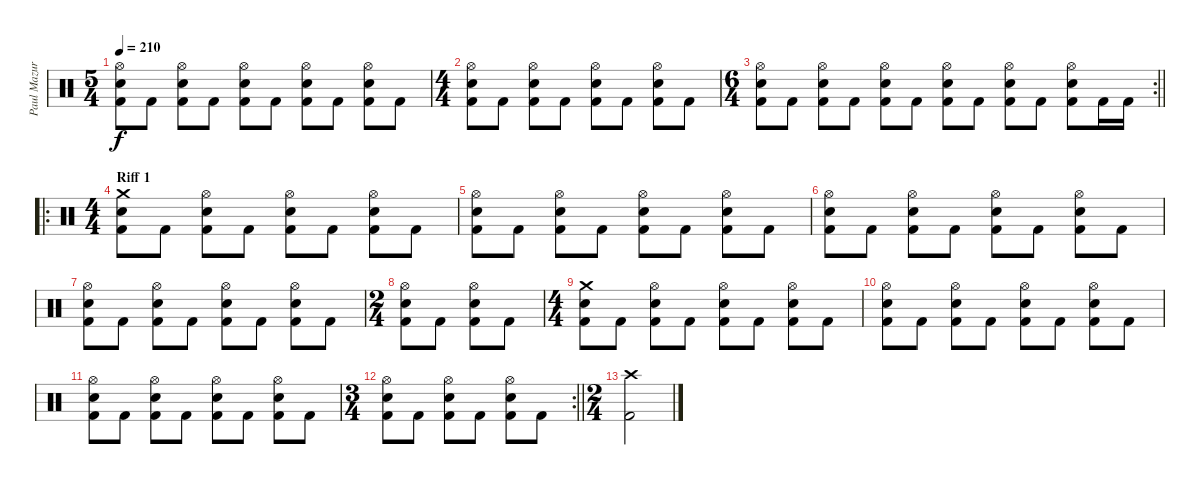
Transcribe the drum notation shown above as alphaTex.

\track ("Paul Mazurkiewicz" "Paul Mazur") {instrument percussion}
\staff {score}
\articulation defaults
\ts (5 4)
\tempo 210
\clef neutral
\ks c
("Hi-Hat (open)" "Electric Snare (hit)" "Kick (hit) 2").8{dy f} "Kick (hit) 2".8 ("Hi-Hat (open)" "Electric Snare (hit)" "Kick (hit) 2").8 "Kick (hit) 2".8 ("Hi-Hat (open)" "Electric Snare (hit)" "Kick (hit) 2").8 "Kick (hit) 2".8 ("Hi-Hat (open)" "Electric Snare (hit)" "Kick (hit) 2").8 "Kick (hit) 2".8 ("Hi-Hat (open)" "Electric Snare (hit)" "Kick (hit) 2").8 "Kick (hit) 2".8 |
\ts (4 4)
("Hi-Hat (open)" "Electric Snare (hit)" "Kick (hit) 2").8 "Kick (hit) 2".8 ("Hi-Hat (open)" "Electric Snare (hit)" "Kick (hit) 2").8 "Kick (hit) 2".8 ("Hi-Hat (open)" "Electric Snare (hit)" "Kick (hit) 2").8 "Kick (hit) 2".8 ("Hi-Hat (open)" "Electric Snare (hit)" "Kick (hit) 2").8 "Kick (hit) 2".8 |
\rc 2
\ts (6 4)
\barLineRight lightlight
("Hi-Hat (open)" "Electric Snare (hit)" "Kick (hit) 2").8 "Kick (hit) 2".8 ("Hi-Hat (open)" "Electric Snare (hit)" "Kick (hit) 2").8 "Kick (hit) 2".8 ("Hi-Hat (open)" "Electric Snare (hit)" "Kick (hit) 2").8 "Kick (hit) 2".8 ("Hi-Hat (open)" "Electric Snare (hit)" "Kick (hit) 2").8 "Kick (hit) 2".8 ("Hi-Hat (open)" "Electric Snare (hit)" "Kick (hit) 2").8 "Kick (hit) 2".8 ("Hi-Hat (open)" "Electric Snare (hit)" "Kick (hit) 2").8 "Kick (hit) 2".16 "Kick (hit) 2".16 |
\ro
\ts (4 4)
\section ("" "Riff 1")
("Crash medium (hit)" "Electric Snare (hit)" "Kick (hit) 2").8 "Kick (hit) 2".8 ("Hi-Hat (open)" "Electric Snare (hit)" "Kick (hit) 2").8 "Kick (hit) 2".8 ("Hi-Hat (open)" "Electric Snare (hit)" "Kick (hit) 2").8 "Kick (hit) 2".8 ("Hi-Hat (open)" "Electric Snare (hit)" "Kick (hit) 2").8 "Kick (hit) 2".8 |
("Hi-Hat (open)" "Electric Snare (hit)" "Kick (hit) 2").8 "Kick (hit) 2".8 ("Hi-Hat (open)" "Electric Snare (hit)" "Kick (hit) 2").8 "Kick (hit) 2".8 ("Hi-Hat (open)" "Electric Snare (hit)" "Kick (hit) 2").8 "Kick (hit) 2".8 ("Hi-Hat (open)" "Electric Snare (hit)" "Kick (hit) 2").8 "Kick (hit) 2".8 |
("Hi-Hat (open)" "Electric Snare (hit)" "Kick (hit) 2").8 "Kick (hit) 2".8 ("Hi-Hat (open)" "Electric Snare (hit)" "Kick (hit) 2").8 "Kick (hit) 2".8 ("Hi-Hat (open)" "Electric Snare (hit)" "Kick (hit) 2").8 "Kick (hit) 2".8 ("Hi-Hat (open)" "Electric Snare (hit)" "Kick (hit) 2").8 "Kick (hit) 2".8 |
("Hi-Hat (open)" "Electric Snare (hit)" "Kick (hit) 2").8 "Kick (hit) 2".8 ("Hi-Hat (open)" "Electric Snare (hit)" "Kick (hit) 2").8 "Kick (hit) 2".8 ("Hi-Hat (open)" "Electric Snare (hit)" "Kick (hit) 2").8 "Kick (hit) 2".8 ("Hi-Hat (open)" "Electric Snare (hit)" "Kick (hit) 2").8 "Kick (hit) 2".8 |
\ts (2 4)
("Hi-Hat (open)" "Electric Snare (hit)" "Kick (hit) 2").8 "Kick (hit) 2".8 ("Hi-Hat (open)" "Electric Snare (hit)" "Kick (hit) 2").8 "Kick (hit) 2".8 |
\ts (4 4)
("Crash medium (hit)" "Electric Snare (hit)" "Kick (hit) 2").8 "Kick (hit) 2".8 ("Hi-Hat (open)" "Electric Snare (hit)" "Kick (hit) 2").8 "Kick (hit) 2".8 ("Hi-Hat (open)" "Electric Snare (hit)" "Kick (hit) 2").8 "Kick (hit) 2".8 ("Hi-Hat (open)" "Electric Snare (hit)" "Kick (hit) 2").8 "Kick (hit) 2".8 |
("Hi-Hat (open)" "Electric Snare (hit)" "Kick (hit) 2").8 "Kick (hit) 2".8 ("Hi-Hat (open)" "Electric Snare (hit)" "Kick (hit) 2").8 "Kick (hit) 2".8 ("Hi-Hat (open)" "Electric Snare (hit)" "Kick (hit) 2").8 "Kick (hit) 2".8 ("Hi-Hat (open)" "Electric Snare (hit)" "Kick (hit) 2").8 "Kick (hit) 2".8 |
("Hi-Hat (open)" "Electric Snare (hit)" "Kick (hit) 2").8 "Kick (hit) 2".8 ("Hi-Hat (open)" "Electric Snare (hit)" "Kick (hit) 2").8 "Kick (hit) 2".8 ("Hi-Hat (open)" "Electric Snare (hit)" "Kick (hit) 2").8 "Kick (hit) 2".8 ("Hi-Hat (open)" "Electric Snare (hit)" "Kick (hit) 2").8 "Kick (hit) 2".8 |
\rc 2
\ts (3 4)
\barLineRight lightlight
("Hi-Hat (open)" "Electric Snare (hit)" "Kick (hit) 2").8 "Kick (hit) 2".8 ("Hi-Hat (open)" "Electric Snare (hit)" "Kick (hit) 2").8 "Kick (hit) 2".8 ("Hi-Hat (open)" "Electric Snare (hit)" "Kick (hit) 2").8 "Kick (hit) 2".8 |
\ts (2 4)
("Crash high (hit)" "Kick (hit) 2").2
